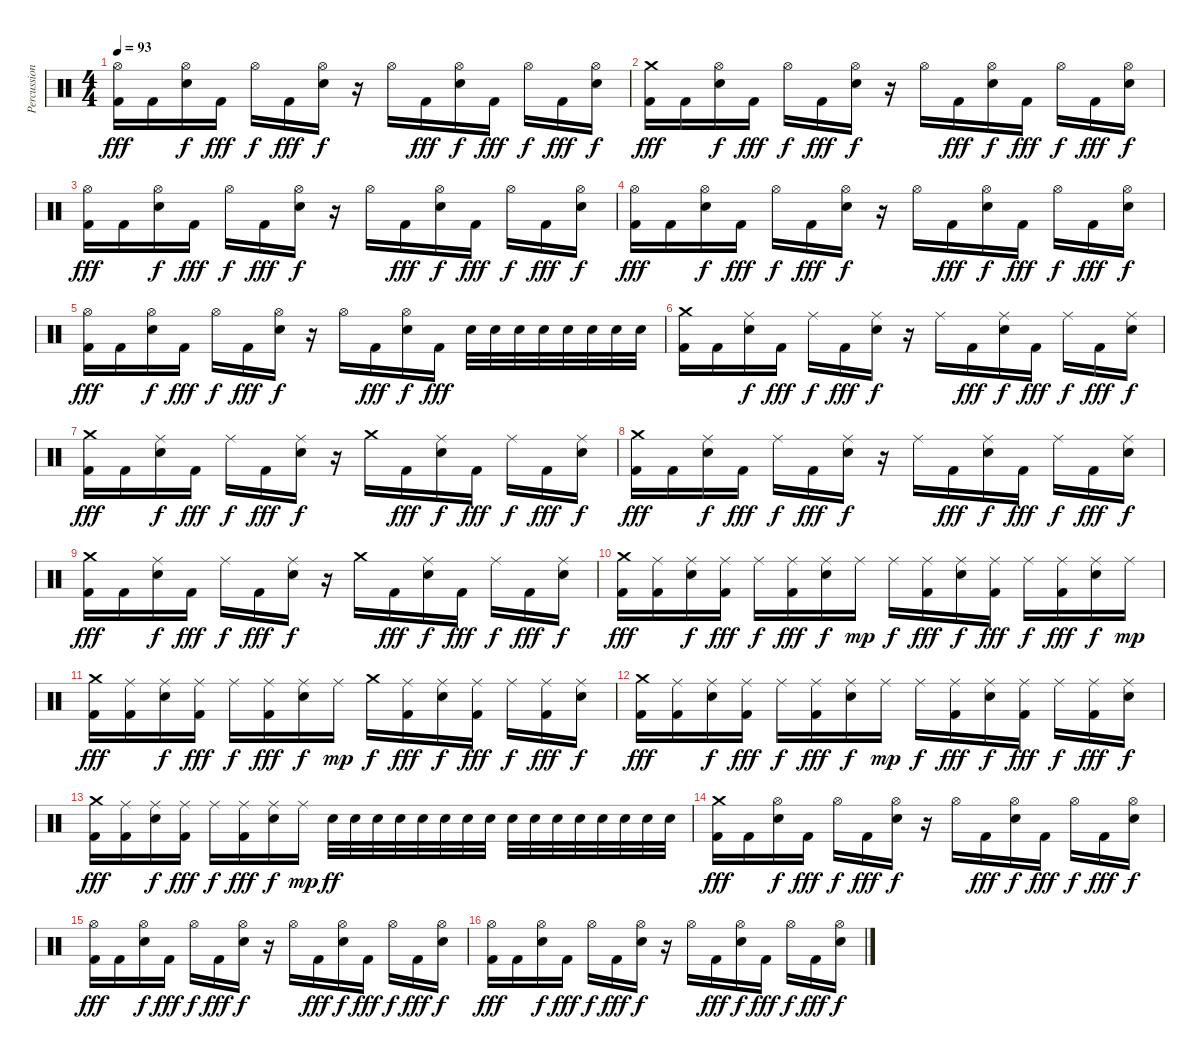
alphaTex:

\track ("Percussion" "Percussion") {instrument percussion}
\staff {score}
\articulation defaults
\ts (4 4)
\tempo 93
\clef neutral
\ks c
("Hi-Hat (open)" "Kick (hit) 2").16{dy fff} "Kick (hit) 2".16 ("Hi-Hat (open)" "Snare (hit) 2").16{dy f} "Kick (hit) 2".16{dy fff} "Hi-Hat (open)".16{dy f} "Kick (hit) 2".16{dy fff} ("Hi-Hat (open)" "Snare (hit) 2").16{dy f} r.16 "Hi-Hat (open)".16 "Kick (hit) 2".16{dy fff} ("Hi-Hat (open)" "Snare (hit) 2").16{dy f} "Kick (hit) 2".16{dy fff} "Hi-Hat (open)".16{dy f} "Kick (hit) 2".16{dy fff} ("Hi-Hat (open)" "Snare (hit) 2").16{dy f} |
("Crash medium (hit)" "Kick (hit) 2").16{dy fff} "Kick (hit) 2".16 ("Hi-Hat (open)" "Snare (hit) 2").16{dy f} "Kick (hit) 2".16{dy fff} "Hi-Hat (open)".16{dy f} "Kick (hit) 2".16{dy fff} ("Hi-Hat (open)" "Snare (hit) 2").16{dy f} r.16 "Hi-Hat (open)".16 "Kick (hit) 2".16{dy fff} ("Hi-Hat (open)" "Snare (hit) 2").16{dy f} "Kick (hit) 2".16{dy fff} "Hi-Hat (open)".16{dy f} "Kick (hit) 2".16{dy fff} ("Hi-Hat (open)" "Snare (hit) 2").16{dy f} |
("Hi-Hat (open)" "Kick (hit) 2").16{dy fff} "Kick (hit) 2".16 ("Hi-Hat (open)" "Snare (hit) 2").16{dy f} "Kick (hit) 2".16{dy fff} "Hi-Hat (open)".16{dy f} "Kick (hit) 2".16{dy fff} ("Hi-Hat (open)" "Snare (hit) 2").16{dy f} r.16 "Hi-Hat (open)".16 "Kick (hit) 2".16{dy fff} ("Hi-Hat (open)" "Snare (hit) 2").16{dy f} "Kick (hit) 2".16{dy fff} "Hi-Hat (open)".16{dy f} "Kick (hit) 2".16{dy fff} ("Hi-Hat (open)" "Snare (hit) 2").16{dy f} |
("Hi-Hat (open)" "Kick (hit) 2").16{dy fff} "Kick (hit) 2".16 ("Hi-Hat (open)" "Snare (hit) 2").16{dy f} "Kick (hit) 2".16{dy fff} "Hi-Hat (open)".16{dy f} "Kick (hit) 2".16{dy fff} ("Hi-Hat (open)" "Snare (hit) 2").16{dy f} r.16 "Hi-Hat (open)".16 "Kick (hit) 2".16{dy fff} ("Hi-Hat (open)" "Snare (hit) 2").16{dy f} "Kick (hit) 2".16{dy fff} "Hi-Hat (open)".16{dy f} "Kick (hit) 2".16{dy fff} ("Hi-Hat (open)" "Snare (hit) 2").16{dy f} |
("Hi-Hat (open)" "Kick (hit) 2").16{dy fff} "Kick (hit) 2".16 ("Hi-Hat (open)" "Snare (hit) 2").16{dy f} "Kick (hit) 2".16{dy fff} "Hi-Hat (open)".16{dy f} "Kick (hit) 2".16{dy fff} ("Hi-Hat (open)" "Snare (hit) 2").16{dy f} r.16 "Hi-Hat (open)".16 "Kick (hit) 2".16{dy fff} ("Hi-Hat (open)" "Snare (hit) 2").16{dy f} "Kick (hit) 2".16{dy fff} "Snare (hit) 2".32 "Snare (hit) 2".32 "Snare (hit) 2".32 "Snare (hit) 2".32 "Snare (hit) 2".32 "Snare (hit) 2".32 "Snare (hit) 2".32 "Snare (hit) 2".32 |
("Crash medium (hit)" "Kick (hit) 2").16 "Kick (hit) 2".16 ("Ride (middle)" "Snare (hit) 2").16{dy f} "Kick (hit) 2".16{dy fff} "Ride (middle)".16{dy f} "Kick (hit) 2".16{dy fff} ("Ride (middle)" "Snare (hit) 2").16{dy f} r.16 "Ride (middle)".16 "Kick (hit) 2".16{dy fff} ("Ride (middle)" "Snare (hit) 2").16{dy f} "Kick (hit) 2".16{dy fff} "Ride (middle)".16{dy f} "Kick (hit) 2".16{dy fff} ("Ride (middle)" "Snare (hit) 2").16{dy f} |
("Crash medium (hit)" "Kick (hit) 2").16{dy fff} "Kick (hit) 2".16 ("Ride (middle)" "Snare (hit) 2").16{dy f} "Kick (hit) 2".16{dy fff} "Ride (middle)".16{dy f} "Kick (hit) 2".16{dy fff} ("Ride (middle)" "Snare (hit) 2").16{dy f} r.16 "Crash medium (hit)".16 "Kick (hit) 2".16{dy fff} ("Ride (middle)" "Snare (hit) 2").16{dy f} "Kick (hit) 2".16{dy fff} "Ride (middle)".16{dy f} "Kick (hit) 2".16{dy fff} ("Ride (middle)" "Snare (hit) 2").16{dy f} |
("Crash medium (hit)" "Kick (hit) 2").16{dy fff} "Kick (hit) 2".16 ("Ride (middle)" "Snare (hit) 2").16{dy f} "Kick (hit) 2".16{dy fff} "Ride (middle)".16{dy f} "Kick (hit) 2".16{dy fff} ("Ride (middle)" "Snare (hit) 2").16{dy f} r.16 "Ride (middle)".16 "Kick (hit) 2".16{dy fff} ("Ride (middle)" "Snare (hit) 2").16{dy f} "Kick (hit) 2".16{dy fff} "Ride (middle)".16{dy f} "Kick (hit) 2".16{dy fff} ("Ride (middle)" "Snare (hit) 2").16{dy f} |
("Crash medium (hit)" "Kick (hit) 2").16{dy fff} "Kick (hit) 2".16 ("Ride (middle)" "Snare (hit) 2").16{dy f} "Kick (hit) 2".16{dy fff} "Ride (middle)".16{dy f} "Kick (hit) 2".16{dy fff} ("Ride (middle)" "Snare (hit) 2").16{dy f} r.16 "Crash medium (hit)".16 "Kick (hit) 2".16{dy fff} ("Ride (middle)" "Snare (hit) 2").16{dy f} "Kick (hit) 2".16{dy fff} "Ride (middle)".16{dy f} "Kick (hit) 2".16{dy fff} ("Ride (middle)" "Snare (hit) 2").16{dy f} |
("Crash medium (hit)" "Kick (hit) 2").16{dy fff} ("Ride (middle)" "Kick (hit) 2").16 ("Ride (middle)" "Snare (hit) 2").16{dy f} ("Ride (middle)" "Kick (hit) 2").16{dy fff} "Ride (middle)".16{dy f} ("Ride (middle)" "Kick (hit) 2").16{dy fff} ("Ride (middle)" "Snare (hit) 2").16{dy f} "Ride (middle)".16{dy mp} "Ride (middle)".16{dy f} ("Ride (middle)" "Kick (hit) 2").16{dy fff} ("Ride (middle)" "Snare (hit) 2").16{dy f} ("Ride (middle)" "Kick (hit) 2").16{dy fff} "Ride (middle)".16{dy f} ("Ride (middle)" "Kick (hit) 2").16{dy fff} ("Ride (middle)" "Snare (hit) 2").16{dy f} "Ride (middle)".16{dy mp} |
("Crash medium (hit)" "Kick (hit) 2").16{dy fff} ("Ride (middle)" "Kick (hit) 2").16 ("Ride (middle)" "Snare (hit) 2").16{dy f} ("Ride (middle)" "Kick (hit) 2").16{dy fff} "Ride (middle)".16{dy f} ("Ride (middle)" "Kick (hit) 2").16{dy fff} ("Ride (middle)" "Snare (hit) 2").16{dy f} "Ride (middle)".16{dy mp} "Crash medium (hit)".16{dy f} ("Ride (middle)" "Kick (hit) 2").16{dy fff} ("Ride (middle)" "Snare (hit) 2").16{dy f} ("Ride (middle)" "Kick (hit) 2").16{dy fff} "Ride (middle)".16{dy f} ("Ride (middle)" "Kick (hit) 2").16{dy fff} ("Ride (middle)" "Snare (hit) 2").16{dy f} |
("Crash medium (hit)" "Kick (hit) 2").16{dy fff} ("Ride (middle)" "Kick (hit) 2").16 ("Ride (middle)" "Snare (hit) 2").16{dy f} ("Ride (middle)" "Kick (hit) 2").16{dy fff} "Ride (middle)".16{dy f} ("Ride (middle)" "Kick (hit) 2").16{dy fff} ("Ride (middle)" "Snare (hit) 2").16{dy f} "Ride (middle)".16{dy mp} "Ride (middle)".16{dy f} ("Ride (middle)" "Kick (hit) 2").16{dy fff} ("Ride (middle)" "Snare (hit) 2").16{dy f} ("Ride (middle)" "Kick (hit) 2").16{dy fff} "Ride (middle)".16{dy f} ("Ride (middle)" "Kick (hit) 2").16{dy fff} ("Ride (middle)" "Snare (hit) 2").16{dy f} |
("Crash medium (hit)" "Kick (hit) 2").16{dy fff} ("Ride (middle)" "Kick (hit) 2").16 ("Ride (middle)" "Snare (hit) 2").16{dy f} ("Ride (middle)" "Kick (hit) 2").16{dy fff} "Ride (middle)".16{dy f} ("Ride (middle)" "Kick (hit) 2").16{dy fff} ("Ride (middle)" "Snare (hit) 2").16{dy f} "Ride (middle)".16{dy mp} "Snare (hit) 2".32{dy ff} "Snare (hit) 2".32 "Snare (hit) 2".32 "Snare (hit) 2".32 "Snare (hit) 2".32 "Snare (hit) 2".32 "Snare (hit) 2".32 "Snare (hit) 2".32 "Snare (hit) 2".32 "Snare (hit) 2".32 "Snare (hit) 2".32 "Snare (hit) 2".32 "Snare (hit) 2".32 "Snare (hit) 2".32 "Snare (hit) 2".32 "Snare (hit) 2".32 |
("Crash medium (hit)" "Kick (hit) 2").16{dy fff} "Kick (hit) 2".16 ("Hi-Hat (open)" "Snare (hit) 2").16{dy f} "Kick (hit) 2".16{dy fff} "Hi-Hat (open)".16{dy f} "Kick (hit) 2".16{dy fff} ("Hi-Hat (open)" "Snare (hit) 2").16{dy f} r.16 "Hi-Hat (open)".16 "Kick (hit) 2".16{dy fff} ("Hi-Hat (open)" "Snare (hit) 2").16{dy f} "Kick (hit) 2".16{dy fff} "Hi-Hat (open)".16{dy f} "Kick (hit) 2".16{dy fff} ("Hi-Hat (open)" "Snare (hit) 2").16{dy f} |
("Hi-Hat (open)" "Kick (hit) 2").16{dy fff} "Kick (hit) 2".16 ("Hi-Hat (open)" "Snare (hit) 2").16{dy f} "Kick (hit) 2".16{dy fff} "Hi-Hat (open)".16{dy f} "Kick (hit) 2".16{dy fff} ("Hi-Hat (open)" "Snare (hit) 2").16{dy f} r.16 "Hi-Hat (open)".16 "Kick (hit) 2".16{dy fff} ("Hi-Hat (open)" "Snare (hit) 2").16{dy f} "Kick (hit) 2".16{dy fff} "Hi-Hat (open)".16{dy f} "Kick (hit) 2".16{dy fff} ("Hi-Hat (open)" "Snare (hit) 2").16{dy f} |
("Hi-Hat (open)" "Kick (hit) 2").16{dy fff} "Kick (hit) 2".16 ("Hi-Hat (open)" "Snare (hit) 2").16{dy f} "Kick (hit) 2".16{dy fff} "Hi-Hat (open)".16{dy f} "Kick (hit) 2".16{dy fff} ("Hi-Hat (open)" "Snare (hit) 2").16{dy f} r.16 "Hi-Hat (open)".16 "Kick (hit) 2".16{dy fff} ("Hi-Hat (open)" "Snare (hit) 2").16{dy f} "Kick (hit) 2".16{dy fff} "Hi-Hat (open)".16{dy f} "Kick (hit) 2".16{dy fff} ("Hi-Hat (open)" "Snare (hit) 2").16{dy f}
